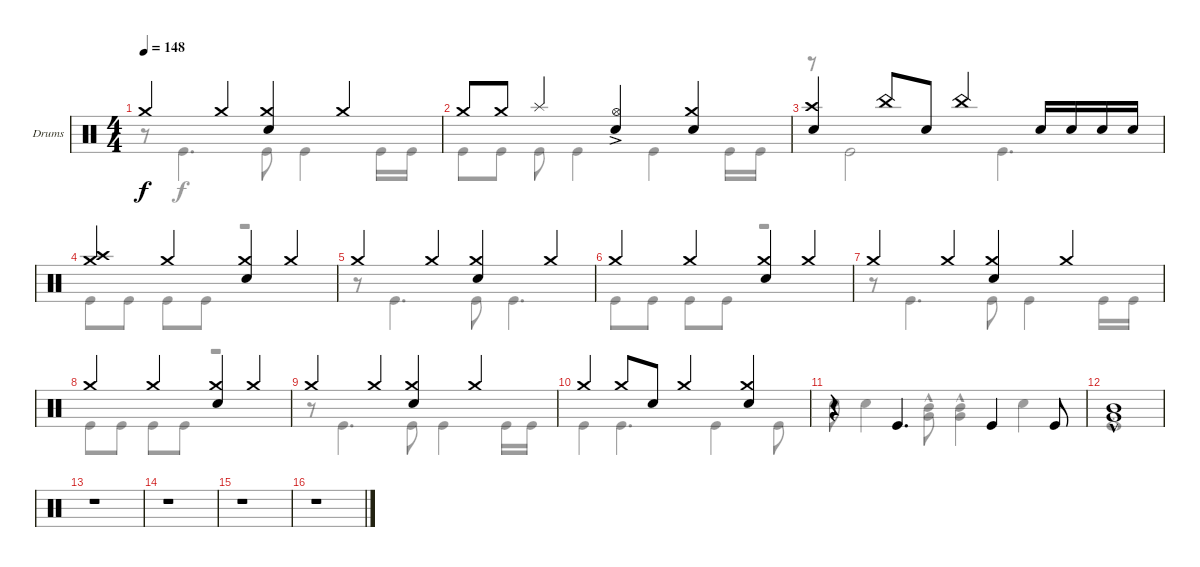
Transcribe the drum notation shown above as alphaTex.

\defaultSystemsLayout 4
\bracketExtendMode groupsimilarinstruments
\firstSystemTrackNameOrientation horizontal
\otherSystemsTrackNameOrientation horizontal
\track ("Drumkit" "Drums") {instrument percussion}
\staff {score}
\articulation defaults
\voice
\ts (4 4)
\tempo 148
\clef neutral
\scale
1.02648
\ks c "Crash medium (hit)".4{dy f} "Crash medium (hit)".4
("Crash medium (hit)" "Snare (hit) 2").4 "Crash medium (hit)".4 |
\scale
0.973518 "Crash medium (hit)".8 "Crash medium (hit)".8 "Splash (hit)".4 ("Snare (hit) 2" "Hi-Hat (open)"{ac}).4 ("Crash medium (hit)" "Snare (hit) 2").4 |
\scale
1.02648 ("Crash high (hit)" "Snare (hit) 2").4 "China (hit)".8 "Snare (hit) 2".8 "China (hit)".4 "Snare (hit) 2".16 "Snare (hit) 2".16 "Snare (hit) 2".16 "Snare (hit) 2".16 |
\scale
0.973518 ("Crash medium (hit)" "Crash high (hit)").4 "Crash medium (hit)".4 ("Crash medium (hit)" "Snare (hit) 2").4 "Crash medium (hit)".4 |
\scale
1.02648 "Crash medium (hit)".4 "Crash medium (hit)".4 ("Crash medium (hit)" "Snare (hit) 2").4 "Crash medium (hit)".4 |
\scale
0.973518 "Crash medium (hit)".4 "Crash medium (hit)".4 ("Crash medium (hit)" "Snare (hit) 2").4 "Crash medium (hit)".4 |
\scale
1.02648 "Crash medium (hit)".4 "Crash medium (hit)".4 ("Crash medium (hit)" "Snare (hit) 2").4 "Crash medium (hit)".4 |
\scale
0.973518 "Crash medium (hit)".4 "Crash medium (hit)".4 ("Crash medium (hit)" "Snare (hit) 2").4 "Crash medium (hit)".4 |
\scale
1.02648 "Crash medium (hit)".4 "Crash medium (hit)".4 ("Crash medium (hit)" "Snare (hit) 2").4 "Crash medium (hit)".4 |
\scale
0.973518 "Crash medium (hit)".4 "Crash medium (hit)".8 "Snare (hit) 2".8 "Crash medium (hit)".4 ("Crash medium (hit)" "Snare (hit) 2").4 |
\scale
1.02648 r.4 "Kick (hit)".4{d} "Kick (hit)".4 "Kick (hit)".8 |
\scale
1.02648 ("Very Low Tom (hit)"{hac} "Mid Tom (hit)"{hac}).1 |
\scale
0.973518 r.1 |
\scale
1.02648 r.1 |
\scale
0.973518 r.1 |
\scale
1.02648 r.1
\voice
\clef neutral
\ottava regular
\simile none
\scale
1.02648
\ks c
r.8{dy f} "Kick (hit)".4{d} "Kick (hit)".8 "Kick (hit)".4 "Kick (hit)".16 "Kick (hit)".16 |
\scale
0.973518 "Kick (hit)".8 "Kick (hit)".8 "Kick (hit)".8 "Kick (hit)".4 "Kick (hit)".4 "Kick (hit)".16 "Kick (hit)".16 |
\scale
1.02648 r.8 "Kick (hit)".2 "Kick (hit)".4{d} |
\scale
0.973518 "Kick (hit)".8 "Kick (hit)".8 "Kick (hit)".8 "Kick (hit)".8 r.2 |
\scale
1.02648 r.8 "Kick (hit)".4{d} "Kick (hit)".8 "Kick (hit)".4{d} |
\scale
0.973518 "Kick (hit)".8 "Kick (hit)".8 "Kick (hit)".8 "Kick (hit)".8 r.2 |
\scale
1.02648 r.8 "Kick (hit)".4{d} "Kick (hit)".8 "Kick (hit)".4 "Kick (hit)".16 "Kick (hit)".16 |
\scale
0.973518 "Kick (hit)".8 "Kick (hit)".8 "Kick (hit)".8 "Kick (hit)".8 r.2 |
\scale
1.02648 r.8 "Kick (hit)".4{d} "Kick (hit)".8 "Kick (hit)".4 "Kick (hit)".16 "Kick (hit)".16 |
\scale
0.973518 "Kick (hit)".4 "Kick (hit)".4{d} "Kick (hit)".4 "Kick (hit)".8 |
\scale
1.02648 "Snare (hit) 2".8 "Snare (hit) 2".4 ("Mid Tom (hit)"{hac} "Very Low Tom (hit)"{hac}).8 ("Mid Tom (hit)"{hac} "Very Low Tom (hit)"{hac}).4 "Snare (hit) 2".4 |
\scale
1.02648 "Kick (hit)"{st}.1 |
\scale
0.973518 r.1 |
\scale
1.02648 r.1 |
\scale
0.973518 r.1 |
\scale
1.02648 r.1
